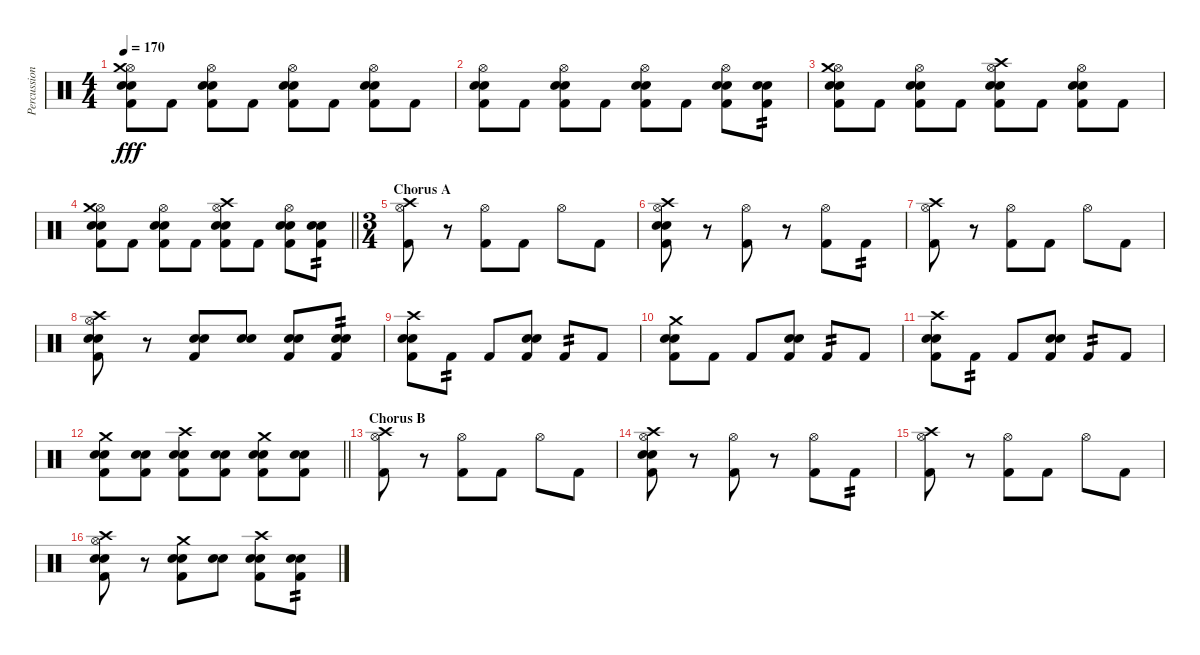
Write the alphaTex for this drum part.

\track ("Percussion" "Percussion") {instrument percussion}
\staff {score}
\articulation defaults
\ts (4 4)
\tempo 170
\clef neutral
\ks c
("Hi-Hat (open)" "Crash medium (hit)" "Electric Snare (hit)" "Snare (hit) 2" "Kick (hit) 2").8{dy fff} "Kick (hit) 2".8 ("Hi-Hat (open)" "Electric Snare (hit)" "Snare (hit) 2" "Kick (hit) 2").8 "Kick (hit) 2".8 ("Hi-Hat (open)" "Electric Snare (hit)" "Snare (hit) 2" "Kick (hit) 2").8 "Kick (hit) 2".8 ("Hi-Hat (open)" "Electric Snare (hit)" "Snare (hit) 2" "Kick (hit) 2").8 "Kick (hit) 2".8 |
("Hi-Hat (open)" "Electric Snare (hit)" "Snare (hit) 2" "Kick (hit) 2").8 "Kick (hit) 2".8 ("Hi-Hat (open)" "Electric Snare (hit)" "Snare (hit) 2" "Kick (hit) 2").8 "Kick (hit) 2".8 ("Hi-Hat (open)" "Electric Snare (hit)" "Snare (hit) 2" "Kick (hit) 2").8 "Kick (hit) 2".8 ("Hi-Hat (open)" "Electric Snare (hit)" "Snare (hit) 2" "Kick (hit) 2").8 ("Electric Snare (hit)" "Snare (hit) 2" "Kick (hit) 2").8{tp 2} |
("Hi-Hat (open)" "Crash medium (hit)" "Electric Snare (hit)" "Snare (hit) 2" "Kick (hit) 2").8 "Kick (hit) 2".8 ("Hi-Hat (open)" "Electric Snare (hit)" "Snare (hit) 2" "Kick (hit) 2").8 "Kick (hit) 2".8 ("Hi-Hat (open)" "Crash high (hit)" "Electric Snare (hit)" "Snare (hit) 2" "Kick (hit) 2").8 "Kick (hit) 2".8 ("Hi-Hat (open)" "Electric Snare (hit)" "Snare (hit) 2" "Kick (hit) 2").8 "Kick (hit) 2".8 |
\barLineRight lightlight
("Hi-Hat (open)" "Crash medium (hit)" "Electric Snare (hit)" "Snare (hit) 2" "Kick (hit) 2").8 "Kick (hit) 2".8 ("Hi-Hat (open)" "Electric Snare (hit)" "Snare (hit) 2" "Kick (hit) 2").8 "Kick (hit) 2".8 ("Hi-Hat (open)" "Crash high (hit)" "Electric Snare (hit)" "Snare (hit) 2" "Kick (hit) 2").8 "Kick (hit) 2".8 ("Hi-Hat (open)" "Electric Snare (hit)" "Snare (hit) 2" "Kick (hit) 2").8 ("Electric Snare (hit)" "Snare (hit) 2" "Kick (hit) 2").8{tp 2} |
\ts (3 4)
\section ("" "Chorus A")
("Crash high (hit)" "Hi-Hat (open)" "Kick (hit) 2").8 r.8 ("Hi-Hat (open)" "Kick (hit) 2").8 "Kick (hit) 2".8 "Hi-Hat (open)".8 "Kick (hit) 2".8 |
("Crash high (hit)" "Hi-Hat (open)" "Electric Snare (hit)" "Snare (hit) 2" "Kick (hit) 2").8 r.8 ("Hi-Hat (open)" "Kick (hit) 2").8 r.8 ("Hi-Hat (open)" "Kick (hit) 2").8 "Kick (hit) 2".8{tp 2} |
("Crash high (hit)" "Hi-Hat (open)" "Kick (hit) 2").8 r.8 ("Hi-Hat (open)" "Kick (hit) 2").8 "Kick (hit) 2".8 "Hi-Hat (open)".8 "Kick (hit) 2".8 |
("Crash high (hit)" "Hi-Hat (open)" "Electric Snare (hit)" "Snare (hit) 2" "Kick (hit) 2").8 r.8 ("Electric Snare (hit)" "Snare (hit) 2" "Kick (hit) 2").8 ("Electric Snare (hit)" "Snare (hit) 2").8 ("Electric Snare (hit)" "Snare (hit) 2" "Kick (hit) 2").8 ("Electric Snare (hit)" "Snare (hit) 2" "Kick (hit) 2").8{tp 2} |
("Crash high (hit)" "Electric Snare (hit)" "Snare (hit) 2" "Kick (hit) 2").8 "Kick (hit) 2".8{tp 2} "Kick (hit) 2".8 ("Electric Snare (hit)" "Snare (hit) 2" "Kick (hit) 2").8 "Kick (hit) 2".8{tp 2} "Kick (hit) 2".8 |
("Crash medium (hit)" "Electric Snare (hit)" "Snare (hit) 2" "Kick (hit) 2").8 "Kick (hit) 2".8 "Kick (hit) 2".8 ("Electric Snare (hit)" "Snare (hit) 2" "Kick (hit) 2").8 "Kick (hit) 2".8{tp 2} "Kick (hit) 2".8 |
("Crash high (hit)" "Electric Snare (hit)" "Snare (hit) 2" "Kick (hit) 2").8 "Kick (hit) 2".8{tp 2} "Kick (hit) 2".8 ("Electric Snare (hit)" "Snare (hit) 2" "Kick (hit) 2").8 "Kick (hit) 2".8{tp 2} "Kick (hit) 2".8 |
\barLineRight lightlight
("Crash medium (hit)" "Electric Snare (hit)" "Snare (hit) 2" "Kick (hit) 2").8 ("Electric Snare (hit)" "Snare (hit) 2" "Kick (hit) 2").8 ("Crash high (hit)" "Electric Snare (hit)" "Snare (hit) 2" "Kick (hit) 2").8 ("Electric Snare (hit)" "Snare (hit) 2" "Kick (hit) 2").8 ("Crash medium (hit)" "Electric Snare (hit)" "Snare (hit) 2" "Kick (hit) 2").8 ("Electric Snare (hit)" "Snare (hit) 2" "Kick (hit) 2").8 |
\section ("" "Chorus B")
("Crash high (hit)" "Hi-Hat (open)" "Kick (hit) 2").8 r.8 ("Hi-Hat (open)" "Kick (hit) 2").8 "Kick (hit) 2".8 "Hi-Hat (open)".8 "Kick (hit) 2".8 |
("Crash high (hit)" "Hi-Hat (open)" "Electric Snare (hit)" "Snare (hit) 2" "Kick (hit) 2").8 r.8 ("Hi-Hat (open)" "Kick (hit) 2").8 r.8 ("Hi-Hat (open)" "Kick (hit) 2").8 "Kick (hit) 2".8{tp 2} |
("Crash high (hit)" "Hi-Hat (open)" "Kick (hit) 2").8 r.8 ("Hi-Hat (open)" "Kick (hit) 2").8 "Kick (hit) 2".8 "Hi-Hat (open)".8 "Kick (hit) 2".8 |
("Crash high (hit)" "Hi-Hat (open)" "Electric Snare (hit)" "Snare (hit) 2" "Kick (hit) 2").8 r.8 ("Crash medium (hit)" "Electric Snare (hit)" "Snare (hit) 2" "Kick (hit) 2").8 ("Electric Snare (hit)" "Snare (hit) 2").8 ("Crash high (hit)" "Electric Snare (hit)" "Snare (hit) 2" "Kick (hit) 2").8 ("Electric Snare (hit)" "Snare (hit) 2" "Kick (hit) 2").8{tp 2}
